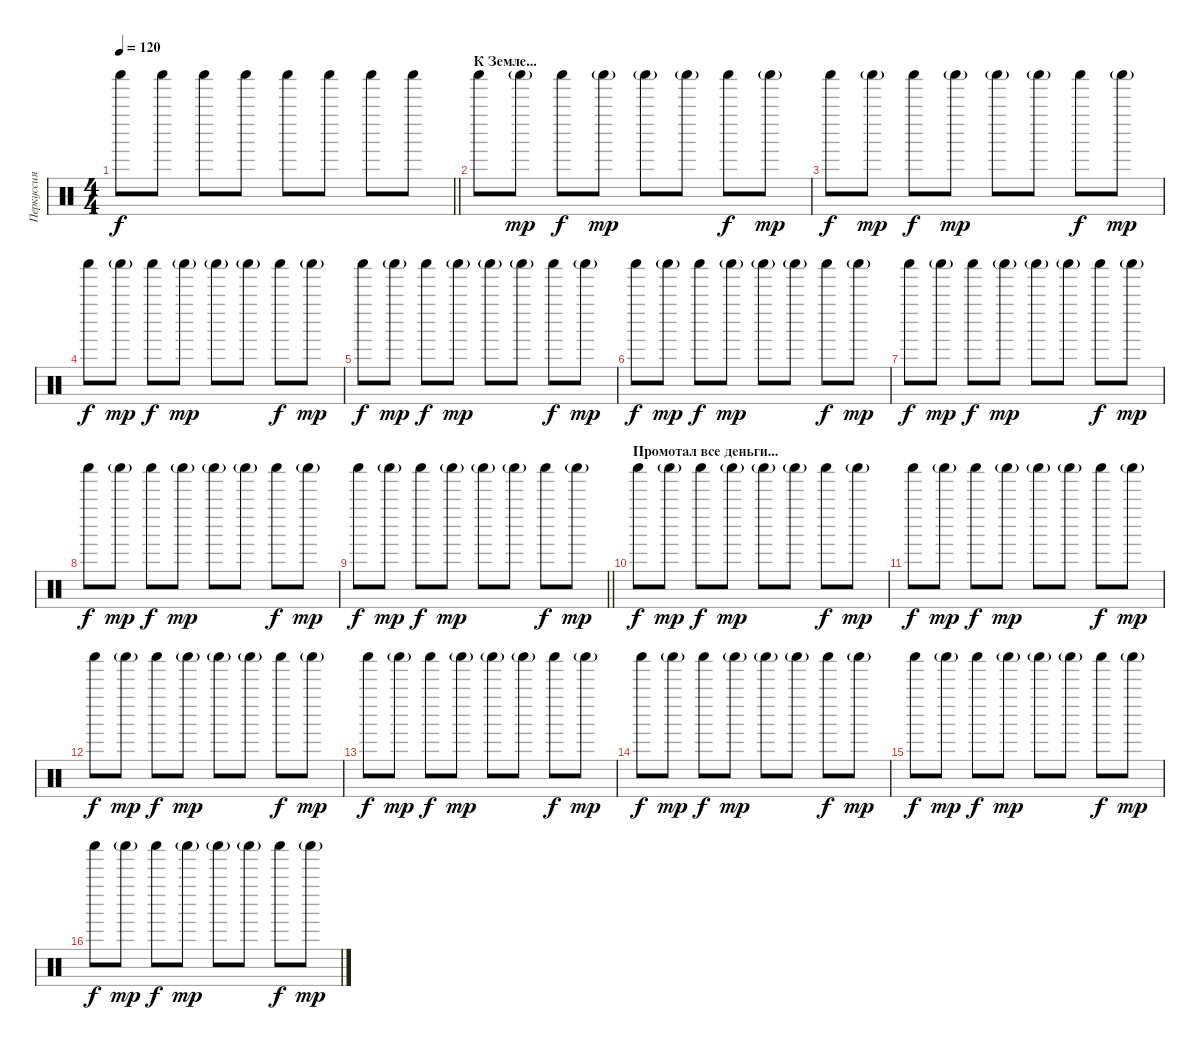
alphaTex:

\track ("Перкуссия" "Перкуссия") {instrument percussion}
\staff {score}
\articulation defaults
\ts (4 4)
\tempo 120
\clef neutral
\barLineRight lightlight
\ks c "Shaker (hit)".8{dy f} "Shaker (hit)".8 "Shaker (hit)".8 "Shaker (hit)".8 "Shaker (hit)".8 "Shaker (hit)".8 "Shaker (hit)".8 "Shaker (hit)".8
|
\section ("" "К Земле...")
"Shaker (hit)".8{volume 3} "Shaker (hit)"{g}.8{dy mp} "Shaker (hit)".8{dy f} "Shaker (hit)"{g}.8{dy mp} "Shaker (hit)"{g}.8 "Shaker (hit)"{g}.8 "Shaker (hit)".8{dy f} "Shaker (hit)"{g}.8{dy mp} |
"Shaker (hit)".8{dy f} "Shaker (hit)"{g}.8{dy mp} "Shaker (hit)".8{dy f} "Shaker (hit)"{g}.8{dy mp} "Shaker (hit)"{g}.8 "Shaker (hit)"{g}.8 "Shaker (hit)".8{dy f} "Shaker (hit)"{g}.8{dy mp} |
"Shaker (hit)".8{dy f} "Shaker (hit)"{g}.8{dy mp} "Shaker (hit)".8{dy f} "Shaker (hit)"{g}.8{dy mp} "Shaker (hit)"{g}.8 "Shaker (hit)"{g}.8 "Shaker (hit)".8{dy f} "Shaker (hit)"{g}.8{dy mp} |
"Shaker (hit)".8{dy f} "Shaker (hit)"{g}.8{dy mp} "Shaker (hit)".8{dy f} "Shaker (hit)"{g}.8{dy mp} "Shaker (hit)"{g}.8 "Shaker (hit)"{g}.8 "Shaker (hit)".8{dy f} "Shaker (hit)"{g}.8{dy mp} |
"Shaker (hit)".8{dy f} "Shaker (hit)"{g}.8{dy mp} "Shaker (hit)".8{dy f} "Shaker (hit)"{g}.8{dy mp} "Shaker (hit)"{g}.8 "Shaker (hit)"{g}.8 "Shaker (hit)".8{dy f} "Shaker (hit)"{g}.8{dy mp} |
"Shaker (hit)".8{dy f} "Shaker (hit)"{g}.8{dy mp} "Shaker (hit)".8{dy f} "Shaker (hit)"{g}.8{dy mp} "Shaker (hit)"{g}.8 "Shaker (hit)"{g}.8 "Shaker (hit)".8{dy f} "Shaker (hit)"{g}.8{dy mp} |
"Shaker (hit)".8{dy f} "Shaker (hit)"{g}.8{dy mp} "Shaker (hit)".8{dy f} "Shaker (hit)"{g}.8{dy mp} "Shaker (hit)"{g}.8 "Shaker (hit)"{g}.8 "Shaker (hit)".8{dy f} "Shaker (hit)"{g}.8{dy mp} |
\barLineRight lightlight "Shaker (hit)".8{dy f} "Shaker (hit)"{g}.8{dy mp} "Shaker (hit)".8{dy f} "Shaker (hit)"{g}.8{dy mp} "Shaker (hit)"{g}.8 "Shaker (hit)"{g}.8 "Shaker (hit)".8{dy f} "Shaker (hit)"{g}.8{dy mp}
|
\section ("" "Промотал все деньги...")
"Shaker (hit)".8{dy f} "Shaker (hit)"{g}.8{dy mp} "Shaker (hit)".8{dy f} "Shaker (hit)"{g}.8{dy mp} "Shaker (hit)"{g}.8 "Shaker (hit)"{g}.8 "Shaker (hit)".8{dy f} "Shaker (hit)"{g}.8{dy mp} |
"Shaker (hit)".8{dy f} "Shaker (hit)"{g}.8{dy mp} "Shaker (hit)".8{dy f} "Shaker (hit)"{g}.8{dy mp} "Shaker (hit)"{g}.8 "Shaker (hit)"{g}.8 "Shaker (hit)".8{dy f} "Shaker (hit)"{g}.8{dy mp} |
"Shaker (hit)".8{dy f} "Shaker (hit)"{g}.8{dy mp} "Shaker (hit)".8{dy f} "Shaker (hit)"{g}.8{dy mp} "Shaker (hit)"{g}.8 "Shaker (hit)"{g}.8 "Shaker (hit)".8{dy f} "Shaker (hit)"{g}.8{dy mp} |
"Shaker (hit)".8{dy f} "Shaker (hit)"{g}.8{dy mp} "Shaker (hit)".8{dy f} "Shaker (hit)"{g}.8{dy mp} "Shaker (hit)"{g}.8 "Shaker (hit)"{g}.8 "Shaker (hit)".8{dy f} "Shaker (hit)"{g}.8{dy mp} |
"Shaker (hit)".8{dy f} "Shaker (hit)"{g}.8{dy mp} "Shaker (hit)".8{dy f} "Shaker (hit)"{g}.8{dy mp} "Shaker (hit)"{g}.8 "Shaker (hit)"{g}.8 "Shaker (hit)".8{dy f} "Shaker (hit)"{g}.8{dy mp} |
"Shaker (hit)".8{dy f} "Shaker (hit)"{g}.8{dy mp} "Shaker (hit)".8{dy f} "Shaker (hit)"{g}.8{dy mp} "Shaker (hit)"{g}.8 "Shaker (hit)"{g}.8 "Shaker (hit)".8{dy f} "Shaker (hit)"{g}.8{dy mp} |
"Shaker (hit)".8{dy f} "Shaker (hit)"{g}.8{dy mp} "Shaker (hit)".8{dy f} "Shaker (hit)"{g}.8{dy mp} "Shaker (hit)"{g}.8 "Shaker (hit)"{g}.8 "Shaker (hit)".8{dy f} "Shaker (hit)"{g}.8{dy mp}
